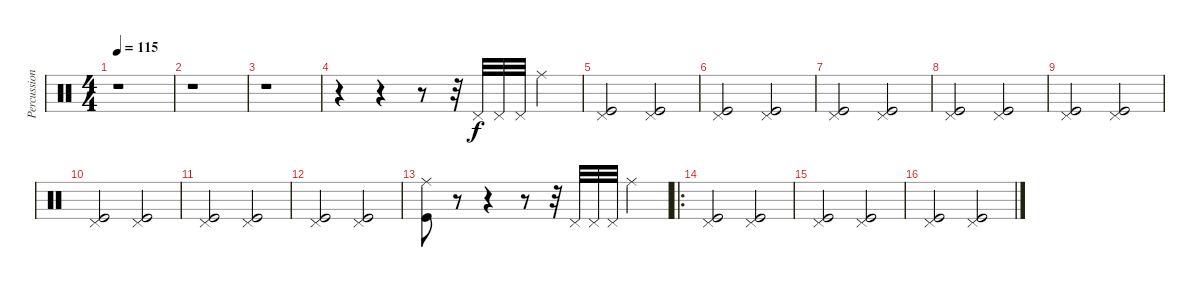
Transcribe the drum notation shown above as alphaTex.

\track ("Percussions" "Percussion") {instrument percussion}
\staff {score}
\articulation defaults
\ts (4 4)
\tempo 115
\clef neutral
\ks c
r.1{dy f} |
r.1 |
r.1 |
r.4 r.4 r.8 r.32 "Pedal Hi-Hat (hit)".32 "Pedal Hi-Hat (hit)".32 "Pedal Hi-Hat (hit)".32 "Ride (middle)".4 |
("Pedal Hi-Hat (hit)" "Kick (hit)").2 ("Pedal Hi-Hat (hit)" "Kick (hit)").2 |
("Pedal Hi-Hat (hit)" "Kick (hit)").2 ("Pedal Hi-Hat (hit)" "Kick (hit)").2 |
("Pedal Hi-Hat (hit)" "Kick (hit)").2 ("Pedal Hi-Hat (hit)" "Kick (hit)").2 |
("Pedal Hi-Hat (hit)" "Kick (hit)").2 ("Pedal Hi-Hat (hit)" "Kick (hit)").2 |
("Pedal Hi-Hat (hit)" "Kick (hit)").2 ("Pedal Hi-Hat (hit)" "Kick (hit)").2 |
("Pedal Hi-Hat (hit)" "Kick (hit)").2 ("Pedal Hi-Hat (hit)" "Kick (hit)").2 |
("Pedal Hi-Hat (hit)" "Kick (hit)").2 ("Pedal Hi-Hat (hit)" "Kick (hit)").2 |
("Pedal Hi-Hat (hit)" "Kick (hit)").2 ("Pedal Hi-Hat (hit)" "Kick (hit)").2 |
("Ride (middle)" "Kick (hit)").8 r.8 r.4 r.8 r.32 "Pedal Hi-Hat (hit)".32 "Pedal Hi-Hat (hit)".32 "Pedal Hi-Hat (hit)".32 "Ride (middle)".4 |
\ro
("Pedal Hi-Hat (hit)" "Kick (hit)").2 ("Pedal Hi-Hat (hit)" "Kick (hit)").2 |
("Pedal Hi-Hat (hit)" "Kick (hit)").2 ("Pedal Hi-Hat (hit)" "Kick (hit)").2 |
("Pedal Hi-Hat (hit)" "Kick (hit)").2 ("Pedal Hi-Hat (hit)" "Kick (hit)").2
